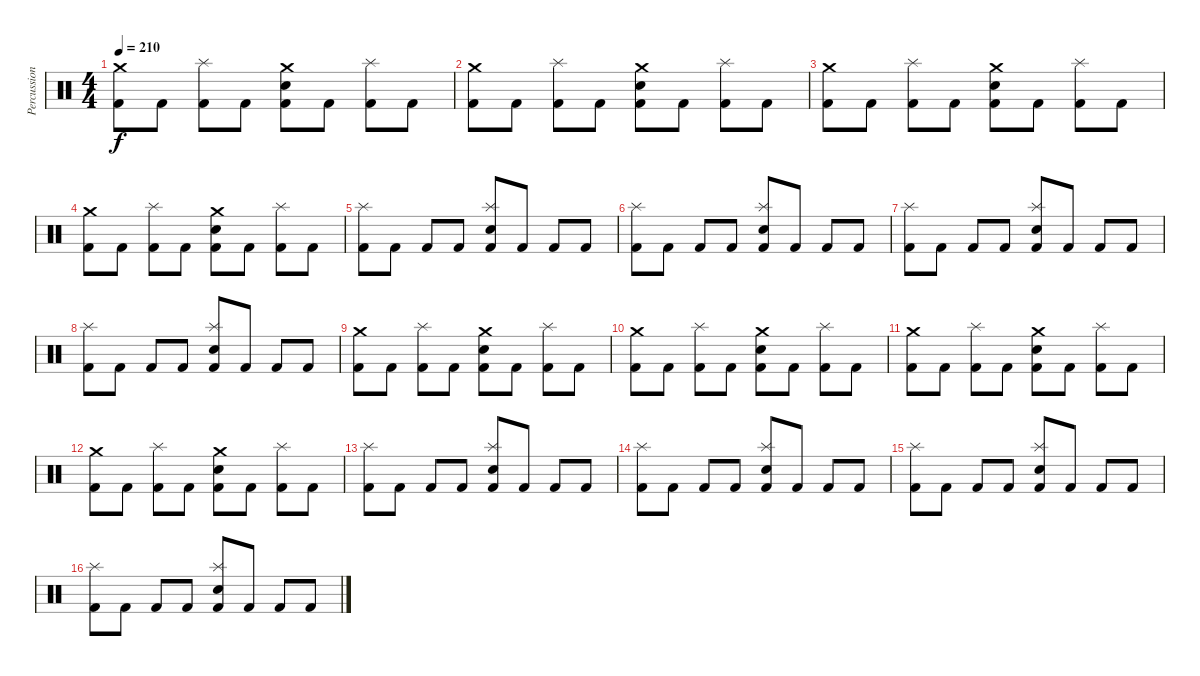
\track ("Percussion" "Percussion") {instrument percussion}
\staff {score}
\articulation defaults
\ts (4 4)
\tempo 210
\clef neutral
\ks c
("Crash medium (hit)" "Kick (hit) 2").8{dy f} "Kick (hit) 2".8 ("Splash (hit)" "Kick (hit) 2").8 "Kick (hit) 2".8 ("Crash medium (hit)" "Electric Snare (hit)" "Kick (hit) 2").8 "Kick (hit) 2".8 ("Splash (hit)" "Kick (hit) 2").8 "Kick (hit) 2".8 |
("Crash medium (hit)" "Kick (hit) 2").8 "Kick (hit) 2".8 ("Splash (hit)" "Kick (hit) 2").8 "Kick (hit) 2".8 ("Crash medium (hit)" "Electric Snare (hit)" "Kick (hit) 2").8 "Kick (hit) 2".8 ("Splash (hit)" "Kick (hit) 2").8 "Kick (hit) 2".8 |
("Crash medium (hit)" "Kick (hit) 2").8 "Kick (hit) 2".8 ("Splash (hit)" "Kick (hit) 2").8 "Kick (hit) 2".8 ("Crash medium (hit)" "Electric Snare (hit)" "Kick (hit) 2").8 "Kick (hit) 2".8 ("Splash (hit)" "Kick (hit) 2").8 "Kick (hit) 2".8 |
("Crash medium (hit)" "Kick (hit) 2").8 "Kick (hit) 2".8 ("Splash (hit)" "Kick (hit) 2").8 "Kick (hit) 2".8 ("Crash medium (hit)" "Electric Snare (hit)" "Kick (hit) 2").8 "Kick (hit) 2".8 ("Splash (hit)" "Kick (hit) 2").8 "Kick (hit) 2".8 |
("Splash (hit)" "Kick (hit) 2").8 "Kick (hit) 2".8 "Kick (hit) 2".8 "Kick (hit) 2".8 ("Splash (hit)" "Electric Snare (hit)" "Kick (hit) 2").8 "Kick (hit) 2".8 "Kick (hit) 2".8 "Kick (hit) 2".8 |
("Splash (hit)" "Kick (hit) 2").8 "Kick (hit) 2".8 "Kick (hit) 2".8 "Kick (hit) 2".8 ("Splash (hit)" "Electric Snare (hit)" "Kick (hit) 2").8 "Kick (hit) 2".8 "Kick (hit) 2".8 "Kick (hit) 2".8 |
("Splash (hit)" "Kick (hit) 2").8 "Kick (hit) 2".8 "Kick (hit) 2".8 "Kick (hit) 2".8 ("Splash (hit)" "Electric Snare (hit)" "Kick (hit) 2").8 "Kick (hit) 2".8 "Kick (hit) 2".8 "Kick (hit) 2".8 |
("Splash (hit)" "Kick (hit) 2").8 "Kick (hit) 2".8 "Kick (hit) 2".8 "Kick (hit) 2".8 ("Splash (hit)" "Electric Snare (hit)" "Kick (hit) 2").8 "Kick (hit) 2".8 "Kick (hit) 2".8 "Kick (hit) 2".8 |
("Crash medium (hit)" "Kick (hit) 2").8 "Kick (hit) 2".8 ("Splash (hit)" "Kick (hit) 2").8 "Kick (hit) 2".8 ("Crash medium (hit)" "Electric Snare (hit)" "Kick (hit) 2").8 "Kick (hit) 2".8 ("Splash (hit)" "Kick (hit) 2").8 "Kick (hit) 2".8 |
("Crash medium (hit)" "Kick (hit) 2").8 "Kick (hit) 2".8 ("Splash (hit)" "Kick (hit) 2").8 "Kick (hit) 2".8 ("Crash medium (hit)" "Electric Snare (hit)" "Kick (hit) 2").8 "Kick (hit) 2".8 ("Splash (hit)" "Kick (hit) 2").8 "Kick (hit) 2".8 |
("Crash medium (hit)" "Kick (hit) 2").8 "Kick (hit) 2".8 ("Splash (hit)" "Kick (hit) 2").8 "Kick (hit) 2".8 ("Crash medium (hit)" "Electric Snare (hit)" "Kick (hit) 2").8 "Kick (hit) 2".8 ("Splash (hit)" "Kick (hit) 2").8 "Kick (hit) 2".8 |
("Crash medium (hit)" "Kick (hit) 2").8 "Kick (hit) 2".8 ("Splash (hit)" "Kick (hit) 2").8 "Kick (hit) 2".8 ("Crash medium (hit)" "Electric Snare (hit)" "Kick (hit) 2").8 "Kick (hit) 2".8 ("Splash (hit)" "Kick (hit) 2").8 "Kick (hit) 2".8 |
("Splash (hit)" "Kick (hit) 2").8 "Kick (hit) 2".8 "Kick (hit) 2".8 "Kick (hit) 2".8 ("Splash (hit)" "Electric Snare (hit)" "Kick (hit) 2").8 "Kick (hit) 2".8 "Kick (hit) 2".8 "Kick (hit) 2".8 |
("Splash (hit)" "Kick (hit) 2").8 "Kick (hit) 2".8 "Kick (hit) 2".8 "Kick (hit) 2".8 ("Splash (hit)" "Electric Snare (hit)" "Kick (hit) 2").8 "Kick (hit) 2".8 "Kick (hit) 2".8 "Kick (hit) 2".8 |
("Splash (hit)" "Kick (hit) 2").8 "Kick (hit) 2".8 "Kick (hit) 2".8 "Kick (hit) 2".8 ("Splash (hit)" "Electric Snare (hit)" "Kick (hit) 2").8 "Kick (hit) 2".8 "Kick (hit) 2".8 "Kick (hit) 2".8 |
("Splash (hit)" "Kick (hit) 2").8 "Kick (hit) 2".8 "Kick (hit) 2".8 "Kick (hit) 2".8 ("Splash (hit)" "Electric Snare (hit)" "Kick (hit) 2").8 "Kick (hit) 2".8 "Kick (hit) 2".8 "Kick (hit) 2".8
